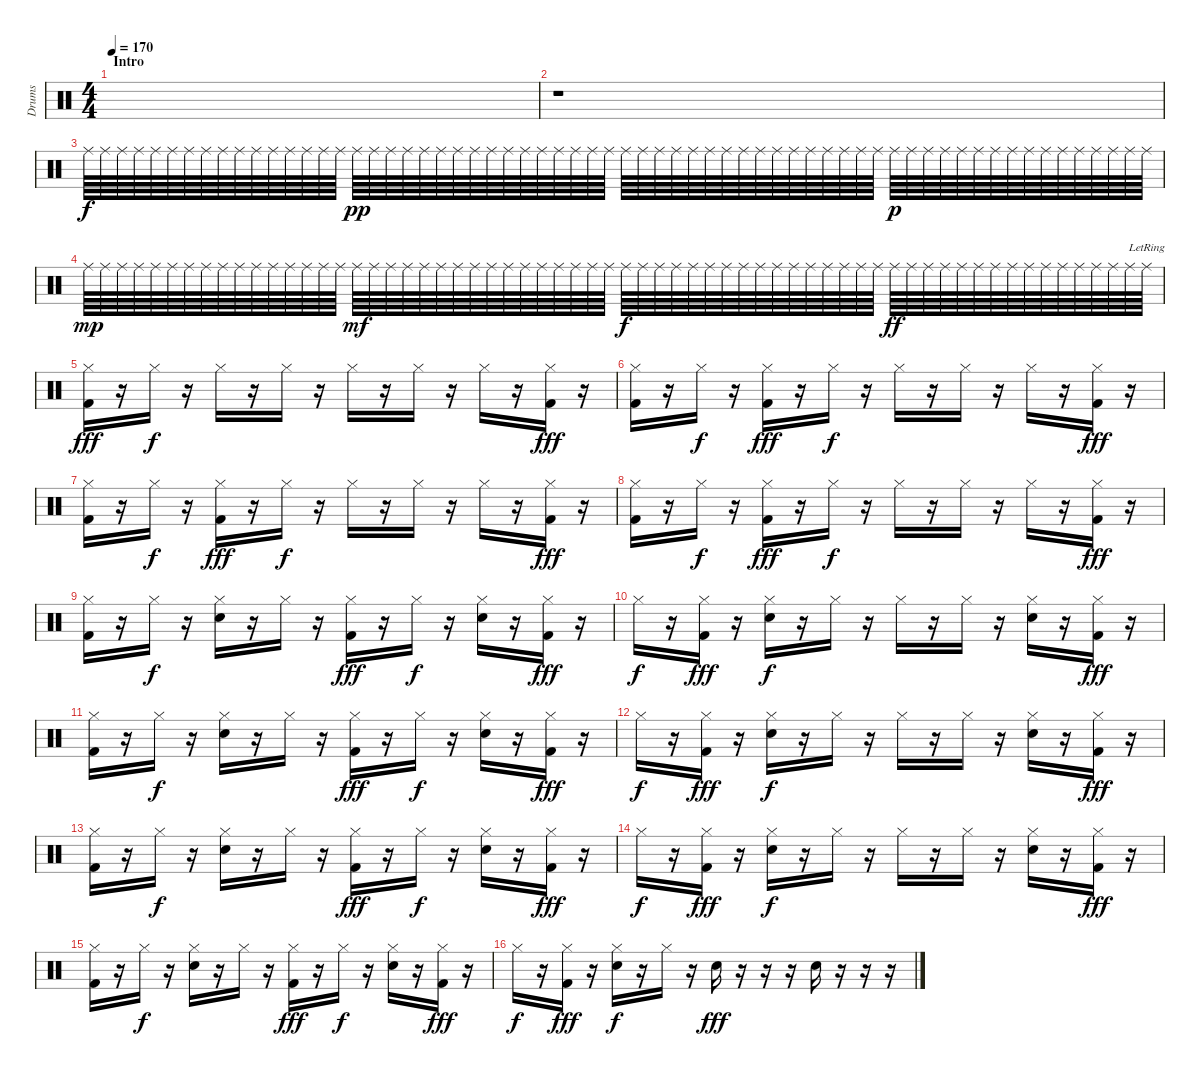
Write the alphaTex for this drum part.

\track ("Drums" "Drums") {instrument percussion}
\staff {score}
\articulation defaults
\ts (4 4)
\section ("" "Intro")
\tempo 170
\clef neutral
\ks c
|
r.1 |
"Ride (middle)".64 "Ride (middle)".64 "Ride (middle)".64 "Ride (middle)".64 "Ride (middle)".64 "Ride (middle)".64 "Ride (middle)".64 "Ride (middle)".64 "Ride (middle)".64 "Ride (middle)".64 "Ride (middle)".64 "Ride (middle)".64 "Ride (middle)".64 "Ride (middle)".64 "Ride (middle)".64 "Ride (middle)".64 "Ride (middle)".64{dy pp} "Ride (middle)".64 "Ride (middle)".64 "Ride (middle)".64 "Ride (middle)".64 "Ride (middle)".64 "Ride (middle)".64 "Ride (middle)".64 "Ride (middle)".64 "Ride (middle)".64 "Ride (middle)".64 "Ride (middle)".64 "Ride (middle)".64 "Ride (middle)".64 "Ride (middle)".64 "Ride (middle)".64 "Ride (middle)".64 "Ride (middle)".64 "Ride (middle)".64 "Ride (middle)".64 "Ride (middle)".64 "Ride (middle)".64 "Ride (middle)".64 "Ride (middle)".64 "Ride (middle)".64 "Ride (middle)".64 "Ride (middle)".64 "Ride (middle)".64 "Ride (middle)".64 "Ride (middle)".64 "Ride (middle)".64 "Ride (middle)".64 "Ride (middle)".64{dy p} "Ride (middle)".64 "Ride (middle)".64 "Ride (middle)".64 "Ride (middle)".64 "Ride (middle)".64 "Ride (middle)".64 "Ride (middle)".64 "Ride (middle)".64 "Ride (middle)".64 "Ride (middle)".64 "Ride (middle)".64 "Ride (middle)".64 "Ride (middle)".64 "Ride (middle)".64 "Ride (middle)".64 |
"Ride (middle)".64{dy mp} "Ride (middle)".64 "Ride (middle)".64 "Ride (middle)".64 "Ride (middle)".64 "Ride (middle)".64 "Ride (middle)".64 "Ride (middle)".64 "Ride (middle)".64 "Ride (middle)".64 "Ride (middle)".64 "Ride (middle)".64 "Ride (middle)".64 "Ride (middle)".64 "Ride (middle)".64 "Ride (middle)".64 "Ride (middle)".64{dy mf} "Ride (middle)".64 "Ride (middle)".64 "Ride (middle)".64 "Ride (middle)".64 "Ride (middle)".64 "Ride (middle)".64 "Ride (middle)".64 "Ride (middle)".64 "Ride (middle)".64 "Ride (middle)".64 "Ride (middle)".64 "Ride (middle)".64 "Ride (middle)".64 "Ride (middle)".64 "Ride (middle)".64 "Ride (middle)".64{dy f} "Ride (middle)".64 "Ride (middle)".64 "Ride (middle)".64 "Ride (middle)".64 "Ride (middle)".64 "Ride (middle)".64 "Ride (middle)".64 "Ride (middle)".64 "Ride (middle)".64 "Ride (middle)".64 "Ride (middle)".64 "Ride (middle)".64 "Ride (middle)".64 "Ride (middle)".64 "Ride (middle)".64 "Ride (middle)".64{dy ff} "Ride (middle)".64 "Ride (middle)".64 "Ride (middle)".64 "Ride (middle)".64 "Ride (middle)".64 "Ride (middle)".64 "Ride (middle)".64 "Ride (middle)".64 "Ride (middle)".64 "Ride (middle)".64 "Ride (middle)".64 "Ride (middle)".64 "Ride (middle)".64 "Ride (middle)".64 "Ride (middle)"{lr}.64 |
("Kick (hit) 2" "Hi-Hat (closed)").16{dy fff} r.16 "Hi-Hat (closed)".16{dy f} r.16 "Hi-Hat (closed)".16 r.16 "Hi-Hat (closed)".16 r.16 "Hi-Hat (closed)".16 r.16 "Hi-Hat (closed)".16 r.16 "Hi-Hat (closed)".16 r.16 ("Kick (hit) 2" "Hi-Hat (closed)").16{dy fff} r.16 |
("Kick (hit) 2" "Hi-Hat (closed)").16 r.16 "Hi-Hat (closed)".16{dy f} r.16 ("Kick (hit) 2" "Hi-Hat (closed)").16{dy fff} r.16 "Hi-Hat (closed)".16{dy f} r.16 "Hi-Hat (closed)".16 r.16 "Hi-Hat (closed)".16 r.16 "Hi-Hat (closed)".16 r.16 ("Kick (hit) 2" "Hi-Hat (closed)").16{dy fff} r.16 |
("Kick (hit) 2" "Hi-Hat (closed)").16 r.16 "Hi-Hat (closed)".16{dy f} r.16 ("Kick (hit) 2" "Hi-Hat (closed)").16{dy fff} r.16 "Hi-Hat (closed)".16{dy f} r.16 "Hi-Hat (closed)".16 r.16 "Hi-Hat (closed)".16 r.16 "Hi-Hat (closed)".16 r.16 ("Kick (hit) 2" "Hi-Hat (closed)").16{dy fff} r.16 |
("Kick (hit) 2" "Hi-Hat (closed)").16 r.16 "Hi-Hat (closed)".16{dy f} r.16 ("Kick (hit) 2" "Hi-Hat (closed)").16{dy fff} r.16 "Hi-Hat (closed)".16{dy f} r.16 "Hi-Hat (closed)".16 r.16 "Hi-Hat (closed)".16 r.16 "Hi-Hat (closed)".16 r.16 ("Kick (hit) 2" "Hi-Hat (closed)").16{dy fff} r.16 |
("Kick (hit) 2" "Hi-Hat (closed)").16 r.16 "Hi-Hat (closed)".16{dy f} r.16 ("Hi-Hat (closed)" "Electric Snare (hit)").16 r.16 "Hi-Hat (closed)".16 r.16 ("Kick (hit) 2" "Hi-Hat (closed)").16{dy fff} r.16 "Hi-Hat (closed)".16{dy f} r.16 ("Hi-Hat (closed)" "Electric Snare (hit)").16 r.16 ("Kick (hit) 2" "Hi-Hat (closed)").16{dy fff} r.16 |
"Hi-Hat (closed)".16{dy f} r.16 ("Kick (hit) 2" "Hi-Hat (closed)").16{dy fff} r.16 ("Hi-Hat (closed)" "Electric Snare (hit)").16{dy f} r.16 "Hi-Hat (closed)".16 r.16 "Hi-Hat (closed)".16 r.16 "Hi-Hat (closed)".16 r.16 ("Hi-Hat (closed)" "Electric Snare (hit)").16 r.16 ("Kick (hit) 2" "Hi-Hat (closed)").16{dy fff} r.16 |
("Kick (hit) 2" "Hi-Hat (closed)").16 r.16 "Hi-Hat (closed)".16{dy f} r.16 ("Hi-Hat (closed)" "Electric Snare (hit)").16 r.16 "Hi-Hat (closed)".16 r.16 ("Kick (hit) 2" "Hi-Hat (closed)").16{dy fff} r.16 "Hi-Hat (closed)".16{dy f} r.16 ("Hi-Hat (closed)" "Electric Snare (hit)").16 r.16 ("Kick (hit) 2" "Hi-Hat (closed)").16{dy fff} r.16 |
"Hi-Hat (closed)".16{dy f} r.16 ("Kick (hit) 2" "Hi-Hat (closed)").16{dy fff} r.16 ("Hi-Hat (closed)" "Electric Snare (hit)").16{dy f} r.16 "Hi-Hat (closed)".16 r.16 "Hi-Hat (closed)".16 r.16 "Hi-Hat (closed)".16 r.16 ("Hi-Hat (closed)" "Electric Snare (hit)").16 r.16 ("Kick (hit) 2" "Hi-Hat (closed)").16{dy fff} r.16 |
("Kick (hit) 2" "Hi-Hat (closed)").16 r.16 "Hi-Hat (closed)".16{dy f} r.16 ("Hi-Hat (closed)" "Electric Snare (hit)").16 r.16 "Hi-Hat (closed)".16 r.16 ("Kick (hit) 2" "Hi-Hat (closed)").16{dy fff} r.16 "Hi-Hat (closed)".16{dy f} r.16 ("Hi-Hat (closed)" "Electric Snare (hit)").16 r.16 ("Kick (hit) 2" "Hi-Hat (closed)").16{dy fff} r.16 |
"Hi-Hat (closed)".16{dy f} r.16 ("Kick (hit) 2" "Hi-Hat (closed)").16{dy fff} r.16 ("Hi-Hat (closed)" "Electric Snare (hit)").16{dy f} r.16 "Hi-Hat (closed)".16 r.16 "Hi-Hat (closed)".16 r.16 "Hi-Hat (closed)".16 r.16 ("Hi-Hat (closed)" "Electric Snare (hit)").16 r.16 ("Kick (hit) 2" "Hi-Hat (closed)").16{dy fff} r.16 |
("Kick (hit) 2" "Hi-Hat (closed)").16 r.16 "Hi-Hat (closed)".16{dy f} r.16 ("Hi-Hat (closed)" "Electric Snare (hit)").16 r.16 "Hi-Hat (closed)".16 r.16 ("Kick (hit) 2" "Hi-Hat (closed)").16{dy fff} r.16 "Hi-Hat (closed)".16{dy f} r.16 ("Hi-Hat (closed)" "Electric Snare (hit)").16 r.16 ("Kick (hit) 2" "Hi-Hat (closed)").16{dy fff} r.16 |
"Hi-Hat (closed)".16{dy f} r.16 ("Kick (hit) 2" "Hi-Hat (closed)").16{dy fff} r.16 ("Hi-Hat (closed)" "Electric Snare (hit)").16{dy f} r.16 "Hi-Hat (closed)".16 r.16 "Electric Snare (hit)".16{dy fff} r.16 r.16 r.16 "Electric Snare (hit)".16 r.16 r.16 r.16
